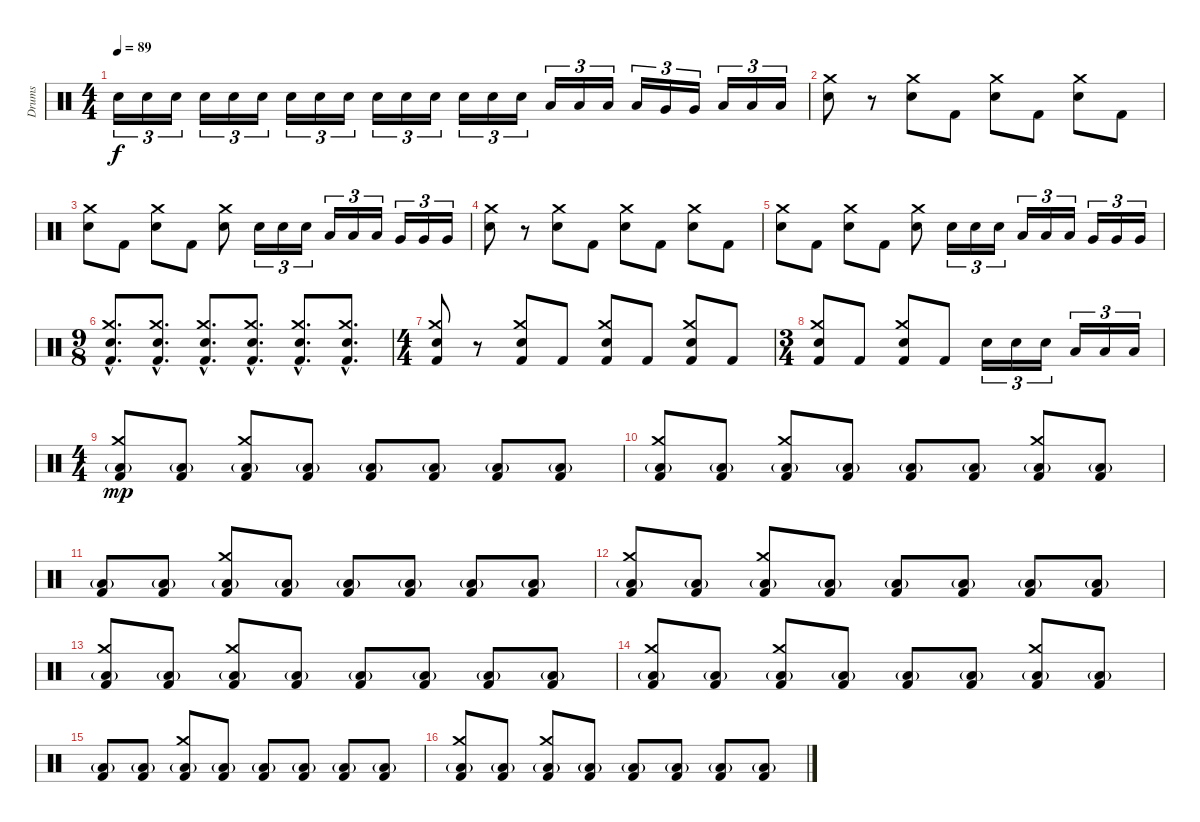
\track ("Drums" "Drums") {instrument percussion}
\staff {score}
\articulation defaults
\ts (4 4)
\tempo 89
\clef neutral
\ks c "Electric Snare (hit)".16{tu (3 2) dy f} "Electric Snare (hit)".16{tu (3 2)} "Electric Snare (hit)".16{tu (3 2)} "Electric Snare (hit)".16{tu (3 2)} "Electric Snare (hit)".16{tu (3 2)} "Electric Snare (hit)".16{tu (3 2)} "Electric Snare (hit)".16{tu (3 2)} "Electric Snare (hit)".16{tu (3 2)} "Electric Snare (hit)".16{tu (3 2)} "Electric Snare (hit)".16{tu (3 2)} "Electric Snare (hit)".16{tu (3 2)} "Electric Snare (hit)".16{tu (3 2)} "Electric Snare (hit)".16{tu (3 2)} "Electric Snare (hit)".16{tu (3 2)} "Electric Snare (hit)".16{tu (3 2)} "Low Tom (hit)".16{tu (3 2)} "Low Tom (hit)".16{tu (3 2)} "Low Tom (hit)".16{tu (3 2)} "Low Tom (hit)".16{tu (3 2)} "Very Low Tom (hit)".16{tu (3 2)} "Very Low Tom (hit)".16{tu (3 2)} "Low Floor Tom (hit)".16{tu (3 2)} "Low Floor Tom (hit)".16{tu (3 2)} "Low Floor Tom (hit)".16{tu (3 2)}
|
("Crash medium (hit)" "Electric Snare (hit)").8 r.8 ("Crash medium (hit)" "Electric Snare (hit)").8 "Kick (hit) 2".8 ("Crash medium (hit)" "Electric Snare (hit)").8 "Kick (hit) 2".8 ("Crash medium (hit)" "Electric Snare (hit)").8 "Kick (hit) 2".8 |
("Crash medium (hit)" "Electric Snare (hit)").8 "Kick (hit) 2".8 ("Crash medium (hit)" "Electric Snare (hit)").8 "Kick (hit) 2".8 ("Crash medium (hit)" "Electric Snare (hit)").8 "Electric Snare (hit)".16{tu (3 2)} "Electric Snare (hit)".16{tu (3 2)} "Electric Snare (hit)".16{tu (3 2)} "Low Tom (hit)".16{tu (3 2)} "Low Tom (hit)".16{tu (3 2)} "Low Tom (hit)".16{tu (3 2)} "Very Low Tom (hit)".16{tu (3 2)} "Very Low Tom (hit)".16{tu (3 2)} "Very Low Tom (hit)".16{tu (3 2)} |
("Crash medium (hit)" "Electric Snare (hit)").8 r.8 ("Crash medium (hit)" "Electric Snare (hit)").8 "Kick (hit) 2".8 ("Crash medium (hit)" "Electric Snare (hit)").8 "Kick (hit) 2".8 ("Crash medium (hit)" "Electric Snare (hit)").8 "Kick (hit) 2".8 |
("Crash medium (hit)" "Electric Snare (hit)").8 "Kick (hit) 2".8 ("Crash medium (hit)" "Electric Snare (hit)").8 "Kick (hit) 2".8 ("Crash medium (hit)" "Electric Snare (hit)").8 "Electric Snare (hit)".16{tu (3 2)} "Electric Snare (hit)".16{tu (3 2)} "Electric Snare (hit)".16{tu (3 2)} "Low Tom (hit)".16{tu (3 2)} "Low Tom (hit)".16{tu (3 2)} "Low Tom (hit)".16{tu (3 2)} "Very Low Tom (hit)".16{tu (3 2)} "Very Low Tom (hit)".16{tu (3 2)} "Very Low Tom (hit)".16{tu (3 2)} |
\ts (9 8)
("Crash medium (hit)"{hac} "Electric Snare (hit)"{hac} "Kick (hit) 2"{hac}).8{d} ("Crash medium (hit)"{hac} "Electric Snare (hit)"{hac} "Kick (hit) 2"{hac}).8{d} ("Crash medium (hit)"{hac} "Electric Snare (hit)"{hac} "Kick (hit) 2"{hac}).8{d} ("Crash medium (hit)"{hac} "Electric Snare (hit)"{hac} "Kick (hit) 2"{hac}).8{d} ("Crash medium (hit)"{hac} "Electric Snare (hit)"{hac} "Kick (hit) 2"{hac}).8{d} ("Crash medium (hit)"{hac} "Electric Snare (hit)"{hac} "Kick (hit) 2"{hac}).8{d} |
\ts (4 4)
("Crash medium (hit)" "Electric Snare (hit)" "Kick (hit) 2").8 r.8 ("Crash medium (hit)" "Electric Snare (hit)" "Kick (hit) 2").8 "Kick (hit) 2".8 ("Crash medium (hit)" "Electric Snare (hit)" "Kick (hit) 2").8 "Kick (hit) 2".8 ("Crash medium (hit)" "Electric Snare (hit)" "Kick (hit) 2").8 "Kick (hit) 2".8 |
\ts (3 4)
("Crash medium (hit)" "Electric Snare (hit)" "Kick (hit) 2").8 "Kick (hit) 2".8 ("Crash medium (hit)" "Electric Snare (hit)" "Kick (hit) 2").8 "Kick (hit) 2".8 "Electric Snare (hit)".16{tu (3 2)} "Electric Snare (hit)".16{tu (3 2)} "Electric Snare (hit)".16{tu (3 2)} "Low Tom (hit)".16{tu (3 2)} "Low Tom (hit)".16{tu (3 2)} "Low Tom (hit)".16{tu (3 2)} |
\ts (4 4)
("Crash medium (hit)" "Low Floor Tom (hit)"{g} "Kick (hit) 2").8{dy mp} ("Low Floor Tom (hit)"{g} "Kick (hit) 2").8 ("Crash medium (hit)" "Low Floor Tom (hit)"{g} "Kick (hit) 2").8 ("Low Floor Tom (hit)"{g} "Kick (hit) 2").8 ("Low Floor Tom (hit)"{g} "Kick (hit) 2").8 ("Low Floor Tom (hit)"{g} "Kick (hit) 2").8 ("Low Floor Tom (hit)"{g} "Kick (hit) 2").8 ("Low Floor Tom (hit)"{g} "Kick (hit) 2").8 |
("Crash medium (hit)" "Low Floor Tom (hit)"{g} "Kick (hit) 2").8 ("Low Floor Tom (hit)"{g} "Kick (hit) 2").8 ("Crash medium (hit)" "Low Floor Tom (hit)"{g} "Kick (hit) 2").8 ("Low Floor Tom (hit)"{g} "Kick (hit) 2").8 ("Low Floor Tom (hit)"{g} "Kick (hit) 2").8 ("Low Floor Tom (hit)"{g} "Kick (hit) 2").8 ("Crash medium (hit)" "Low Floor Tom (hit)"{g} "Kick (hit) 2").8 ("Low Floor Tom (hit)"{g} "Kick (hit) 2").8 |
("Low Floor Tom (hit)"{g} "Kick (hit) 2").8 ("Low Floor Tom (hit)"{g} "Kick (hit) 2").8 ("Crash medium (hit)" "Low Floor Tom (hit)"{g} "Kick (hit) 2").8 ("Low Floor Tom (hit)"{g} "Kick (hit) 2").8 ("Low Floor Tom (hit)"{g} "Kick (hit) 2").8 ("Low Floor Tom (hit)"{g} "Kick (hit) 2").8 ("Low Floor Tom (hit)"{g} "Kick (hit) 2").8 ("Low Floor Tom (hit)"{g} "Kick (hit) 2").8 |
("Crash medium (hit)" "Low Floor Tom (hit)"{g} "Kick (hit) 2").8 ("Low Floor Tom (hit)"{g} "Kick (hit) 2").8 ("Crash medium (hit)" "Low Floor Tom (hit)"{g} "Kick (hit) 2").8 ("Low Floor Tom (hit)"{g} "Kick (hit) 2").8 ("Low Floor Tom (hit)"{g} "Kick (hit) 2").8 ("Low Floor Tom (hit)"{g} "Kick (hit) 2").8 ("Low Floor Tom (hit)"{g} "Kick (hit) 2").8 ("Low Floor Tom (hit)"{g} "Kick (hit) 2").8 |
("Crash medium (hit)" "Low Floor Tom (hit)"{g} "Kick (hit) 2").8 ("Low Floor Tom (hit)"{g} "Kick (hit) 2").8 ("Crash medium (hit)" "Low Floor Tom (hit)"{g} "Kick (hit) 2").8 ("Low Floor Tom (hit)"{g} "Kick (hit) 2").8 ("Low Floor Tom (hit)"{g} "Kick (hit) 2").8 ("Low Floor Tom (hit)"{g} "Kick (hit) 2").8 ("Low Floor Tom (hit)"{g} "Kick (hit) 2").8 ("Low Floor Tom (hit)"{g} "Kick (hit) 2").8 |
("Crash medium (hit)" "Low Floor Tom (hit)"{g} "Kick (hit) 2").8 ("Low Floor Tom (hit)"{g} "Kick (hit) 2").8 ("Crash medium (hit)" "Low Floor Tom (hit)"{g} "Kick (hit) 2").8 ("Low Floor Tom (hit)"{g} "Kick (hit) 2").8 ("Low Floor Tom (hit)"{g} "Kick (hit) 2").8 ("Low Floor Tom (hit)"{g} "Kick (hit) 2").8 ("Crash medium (hit)" "Low Floor Tom (hit)"{g} "Kick (hit) 2").8 ("Low Floor Tom (hit)"{g} "Kick (hit) 2").8 |
("Low Floor Tom (hit)"{g} "Kick (hit) 2").8 ("Low Floor Tom (hit)"{g} "Kick (hit) 2").8 ("Crash medium (hit)" "Low Floor Tom (hit)"{g} "Kick (hit) 2").8 ("Low Floor Tom (hit)"{g} "Kick (hit) 2").8 ("Low Floor Tom (hit)"{g} "Kick (hit) 2").8 ("Low Floor Tom (hit)"{g} "Kick (hit) 2").8 ("Low Floor Tom (hit)"{g} "Kick (hit) 2").8 ("Low Floor Tom (hit)"{g} "Kick (hit) 2").8 |
("Crash medium (hit)" "Low Floor Tom (hit)"{g} "Kick (hit) 2").8 ("Low Floor Tom (hit)"{g} "Kick (hit) 2").8 ("Crash medium (hit)" "Low Floor Tom (hit)"{g} "Kick (hit) 2").8 ("Low Floor Tom (hit)"{g} "Kick (hit) 2").8 ("Low Floor Tom (hit)"{g} "Kick (hit) 2").8 ("Low Floor Tom (hit)"{g} "Kick (hit) 2").8 ("Low Floor Tom (hit)"{g} "Kick (hit) 2").8 ("Low Floor Tom (hit)"{g} "Kick (hit) 2").8
